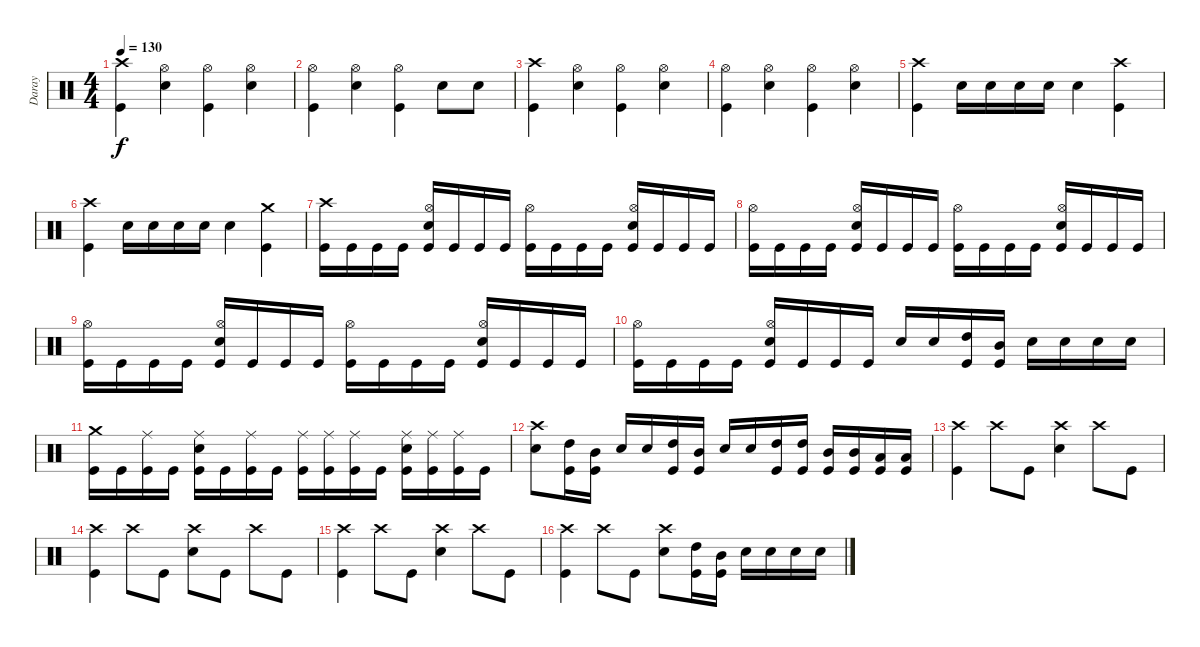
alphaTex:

\track ("Daray" "Daray") {instrument percussion}
\staff {score}
\articulation defaults
\ts (4 4)
\tempo 130
\clef neutral
\ks c
("Crash high (hit)" "Kick (hit)").4{dy f} ("Hi-Hat (open)" "Electric Snare (hit)").4 ("Hi-Hat (open)" "Kick (hit)").4 ("Hi-Hat (open)" "Electric Snare (hit)").4 |
("Hi-Hat (open)" "Kick (hit)").4 ("Hi-Hat (open)" "Electric Snare (hit)").4 ("Hi-Hat (open)" "Kick (hit)").4 "Electric Snare (hit)".8 "Electric Snare (hit)".8 |
("Crash high (hit)" "Kick (hit)").4 ("Hi-Hat (open)" "Electric Snare (hit)").4 ("Hi-Hat (open)" "Kick (hit)").4 ("Hi-Hat (open)" "Electric Snare (hit)").4 |
("Hi-Hat (open)" "Kick (hit)").4 ("Hi-Hat (open)" "Electric Snare (hit)").4 ("Hi-Hat (open)" "Kick (hit)").4 ("Hi-Hat (open)" "Electric Snare (hit)").4 |
("Crash high (hit)" "Kick (hit)").4 "Electric Snare (hit)".16 "Electric Snare (hit)".16 "Electric Snare (hit)".16 "Electric Snare (hit)".16 "Electric Snare (hit)".4 ("Crash high (hit)" "Kick (hit)").4 |
("Crash high (hit)" "Kick (hit)").4 "Electric Snare (hit)".16 "Electric Snare (hit)".16 "Electric Snare (hit)".16 "Electric Snare (hit)".16 "Electric Snare (hit)".4 ("Crash medium (hit)" "Kick (hit)").4 |
("Crash high (hit)" "Kick (hit)").16 "Kick (hit)".16 "Kick (hit)".16 "Kick (hit)".16 ("Hi-Hat (open)" "Electric Snare (hit)" "Kick (hit)").16 "Kick (hit)".16 "Kick (hit)".16 "Kick (hit)".16 ("Hi-Hat (open)" "Kick (hit)").16 "Kick (hit)".16 "Kick (hit)".16 "Kick (hit)".16 ("Hi-Hat (open)" "Electric Snare (hit)" "Kick (hit)").16 "Kick (hit)".16 "Kick (hit)".16 "Kick (hit)".16 |
("Hi-Hat (open)" "Kick (hit)").16 "Kick (hit)".16 "Kick (hit)".16 "Kick (hit)".16 ("Hi-Hat (open)" "Electric Snare (hit)" "Kick (hit)").16 "Kick (hit)".16 "Kick (hit)".16 "Kick (hit)".16 ("Hi-Hat (open)" "Kick (hit)").16 "Kick (hit)".16 "Kick (hit)".16 "Kick (hit)".16 ("Hi-Hat (open)" "Electric Snare (hit)" "Kick (hit)").16 "Kick (hit)".16 "Kick (hit)".16 "Kick (hit)".16 |
("Hi-Hat (open)" "Kick (hit)").16 "Kick (hit)".16 "Kick (hit)".16 "Kick (hit)".16 ("Hi-Hat (open)" "Electric Snare (hit)" "Kick (hit)").16 "Kick (hit)".16 "Kick (hit)".16 "Kick (hit)".16 ("Hi-Hat (open)" "Kick (hit)").16 "Kick (hit)".16 "Kick (hit)".16 "Kick (hit)".16 ("Hi-Hat (open)" "Electric Snare (hit)" "Kick (hit)").16 "Kick (hit)".16 "Kick (hit)".16 "Kick (hit)".16 |
("Hi-Hat (open)" "Kick (hit)").16 "Kick (hit)".16 "Kick (hit)".16 "Kick (hit)".16 ("Hi-Hat (open)" "Electric Snare (hit)" "Kick (hit)").16 "Kick (hit)".16 "Kick (hit)".16 "Kick (hit)".16 "Electric Snare (hit)".16 "Electric Snare (hit)".16 ("High Tom (hit)" "Kick (hit)").16 ("Mid Tom (hit)" "Kick (hit)").16 "Electric Snare (hit)".16 "Electric Snare (hit)".16 "Electric Snare (hit)".16 "Electric Snare (hit)".16 |
("Crash medium (hit)" "Kick (hit)").16 "Kick (hit)".16 ("Ride (middle)" "Kick (hit)").16 "Kick (hit)".16 ("Ride (middle)" "Electric Snare (hit)" "Kick (hit)").16 "Kick (hit)".16 ("Ride (middle)" "Kick (hit)").16 "Kick (hit)".16 ("Ride (middle)" "Kick (hit)").16 ("Ride (middle)" "Kick (hit)").16 ("Ride (middle)" "Kick (hit)").16 "Kick (hit)".16 ("Ride (middle)" "Electric Snare (hit)" "Kick (hit)").16 ("Ride (middle)" "Kick (hit)").16 ("Ride (middle)" "Kick (hit)").16 "Kick (hit)".16 |
("Crash high (hit)" "Electric Snare (hit)").8 ("High Tom (hit)" "Kick (hit)").16 ("Mid Tom (hit)" "Kick (hit)").16 "Electric Snare (hit)".16 "Electric Snare (hit)".16 ("High Tom (hit)" "Kick (hit)").16 ("Mid Tom (hit)" "Kick (hit)").16 "Electric Snare (hit)".16 "Electric Snare (hit)".16 ("High Tom (hit)" "Kick (hit)").16 ("High Tom (hit)" "Kick (hit)").16 ("Mid Tom (hit)" "Kick (hit)").16 ("Mid Tom (hit)" "Kick (hit)").16 ("Low Tom (hit)" "Kick (hit)").16 ("Low Tom (hit)" "Kick (hit)").16 |
("Crash high (hit)" "Kick (hit)").4 "Crash high (hit)".8 "Kick (hit)".8 ("Crash high (hit)" "Electric Snare (hit)").4 "Crash high (hit)".8 "Kick (hit)".8 |
("Crash high (hit)" "Kick (hit)").4 "Crash high (hit)".8 "Kick (hit)".8 ("Crash high (hit)" "Electric Snare (hit)").8 "Kick (hit)".8 "Crash high (hit)".8 "Kick (hit)".8 |
("Crash high (hit)" "Kick (hit)").4 "Crash high (hit)".8 "Kick (hit)".8 ("Crash high (hit)" "Electric Snare (hit)").4 "Crash high (hit)".8 "Kick (hit)".8 |
("Crash high (hit)" "Kick (hit)").4 "Crash high (hit)".8 "Kick (hit)".8 ("Crash high (hit)" "Electric Snare (hit)").8 ("High Tom (hit)" "Kick (hit)").16 ("Mid Tom (hit)" "Kick (hit)").16 "Electric Snare (hit)".16 "Electric Snare (hit)".16 "Electric Snare (hit)".16 "Electric Snare (hit)".16
